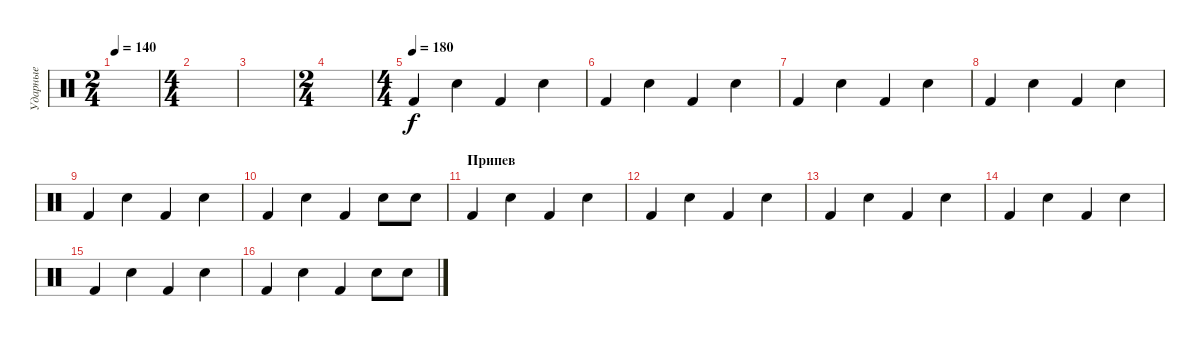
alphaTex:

\track ("Ударные" "Ударные") {instrument percussion}
\staff {score}
\articulation defaults
\ts (2 4)
\tempo 140
\clef neutral
\ks c
|
\ts (4 4)
|
|
\ts (2 4)
|
\ts (4 4)
\tempo (180)
"Kick (hit) 2".4 "Snare (hit) 2".4 "Kick (hit) 2".4 "Snare (hit) 2".4 |
"Kick (hit) 2".4 "Snare (hit) 2".4 "Kick (hit) 2".4 "Snare (hit) 2".4 |
"Kick (hit) 2".4 "Snare (hit) 2".4 "Kick (hit) 2".4 "Snare (hit) 2".4 |
"Kick (hit) 2".4 "Snare (hit) 2".4 "Kick (hit) 2".4 "Snare (hit) 2".4 |
"Kick (hit) 2".4 "Snare (hit) 2".4 "Kick (hit) 2".4 "Snare (hit) 2".4 |
"Kick (hit) 2".4 "Snare (hit) 2".4 "Kick (hit) 2".4 "Snare (hit) 2".8 "Snare (hit) 2".8 |
\section ("" "Припев")
"Kick (hit) 2".4 "Snare (hit) 2".4 "Kick (hit) 2".4 "Snare (hit) 2".4 |
"Kick (hit) 2".4 "Snare (hit) 2".4 "Kick (hit) 2".4 "Snare (hit) 2".4 |
"Kick (hit) 2".4 "Snare (hit) 2".4 "Kick (hit) 2".4 "Snare (hit) 2".4 |
"Kick (hit) 2".4 "Snare (hit) 2".4 "Kick (hit) 2".4 "Snare (hit) 2".4 |
"Kick (hit) 2".4 "Snare (hit) 2".4 "Kick (hit) 2".4 "Snare (hit) 2".4 |
"Kick (hit) 2".4 "Snare (hit) 2".4 "Kick (hit) 2".4 "Snare (hit) 2".8 "Snare (hit) 2".8
